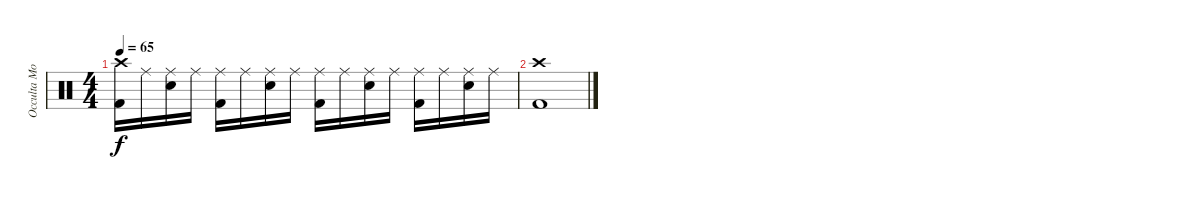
\track ("Occulta Mors" "Occulta Mo") {instrument percussion}
\staff {score}
\articulation defaults
\ts (4 4)
\tempo 65
\clef neutral
\ks c
("Crash high (hit)" "Kick (hit) 2").16{dy f} "Ride (middle)".16 ("Ride (middle)" "Snare (hit) 2").16 "Ride (middle)".16 ("Ride (middle)" "Kick (hit) 2").16 "Ride (middle)".16 ("Ride (middle)" "Snare (hit) 2").16 "Ride (middle)".16 ("Ride (middle)" "Kick (hit) 2").16 "Ride (middle)".16 ("Ride (middle)" "Snare (hit) 2").16 "Ride (middle)".16 ("Ride (middle)" "Kick (hit) 2").16 "Ride (middle)".16 ("Ride (middle)" "Snare (hit) 2").16 "Ride (middle)".16 |
("Crash high (hit)" "Kick (hit) 2").1
